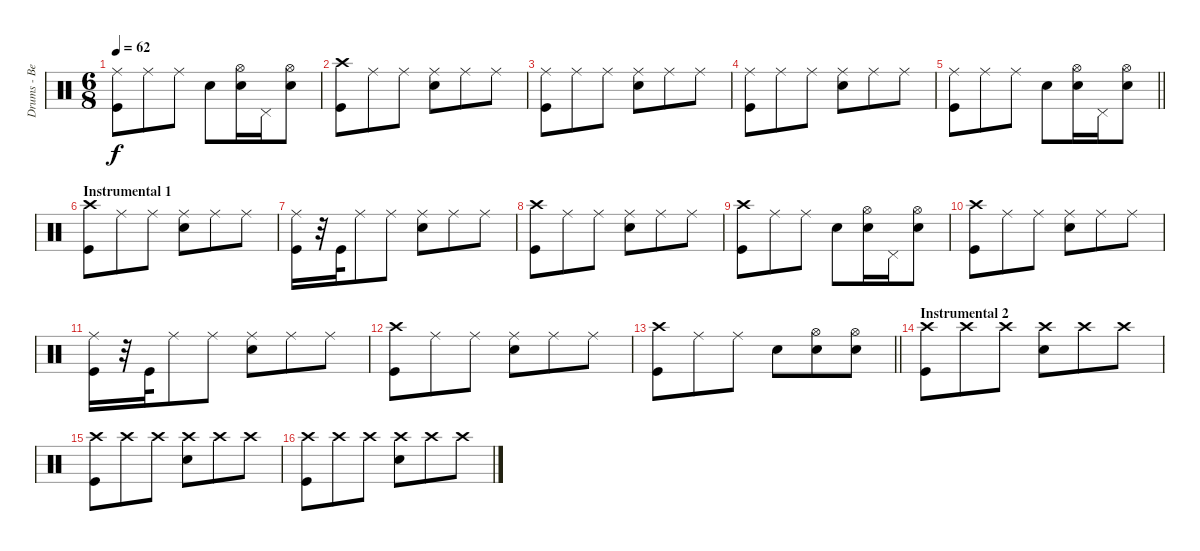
\track ("Drums - Ben Johnston" "Drums - Be") {instrument percussion}
\staff {score}
\articulation defaults
\ts (6 8)
\tempo 62
\clef neutral
\ks c
("Ride (middle)" "Kick (hit)").8{dy f} "Ride (middle)".8 "Ride (middle)".8 "Snare (hit) 2".8 ("Hi-Hat (open)" "Snare (hit) 2").16 "Pedal Hi-Hat (hit)".16 ("Hi-Hat (open)" "Snare (hit) 2").8 |
("Crash high (hit)" "Kick (hit)").8 "Ride (middle)".8 "Ride (middle)".8 ("Ride (middle)" "Snare (hit) 2").8 "Ride (middle)".8 "Ride (middle)".8 |
("Ride (middle)" "Kick (hit)").8 "Ride (middle)".8 "Ride (middle)".8 ("Ride (middle)" "Snare (hit) 2").8 "Ride (middle)".8 "Ride (middle)".8 |
("Ride (middle)" "Kick (hit)").8 "Ride (middle)".8 "Ride (middle)".8 ("Ride (middle)" "Snare (hit) 2").8 "Ride (middle)".8 "Ride (middle)".8 |
\barLineRight lightlight
("Ride (middle)" "Kick (hit)").8 "Ride (middle)".8 "Ride (middle)".8 "Snare (hit) 2".8 ("Hi-Hat (open)" "Snare (hit) 2").16 "Pedal Hi-Hat (hit)".16 ("Hi-Hat (open)" "Snare (hit) 2").8 |
\section ("" "Instrumental 1")
("Crash high (hit)" "Kick (hit)").8 "Ride (middle)".8 "Ride (middle)".8 ("Ride (middle)" "Snare (hit) 2").8 "Ride (middle)".8 "Ride (middle)".8 |
("Ride (middle)" "Kick (hit)").16 r.32 "Kick (hit)".32 "Ride (middle)".8 "Ride (middle)".8 ("Ride (middle)" "Snare (hit) 2").8 "Ride (middle)".8 "Ride (middle)".8 |
("Crash high (hit)" "Kick (hit)").8 "Ride (middle)".8 "Ride (middle)".8 ("Ride (middle)" "Snare (hit) 2").8 "Ride (middle)".8 "Ride (middle)".8 |
("Crash high (hit)" "Kick (hit)").8 "Ride (middle)".8 "Ride (middle)".8 "Snare (hit) 2".8 ("Hi-Hat (open)" "Snare (hit) 2").16 "Pedal Hi-Hat (hit)".16 ("Hi-Hat (open)" "Snare (hit) 2").8 |
("Crash high (hit)" "Kick (hit)").8 "Ride (middle)".8 "Ride (middle)".8 ("Ride (middle)" "Snare (hit) 2").8 "Ride (middle)".8 "Ride (middle)".8 |
("Ride (middle)" "Kick (hit)").16 r.32 "Kick (hit)".32 "Ride (middle)".8 "Ride (middle)".8 ("Ride (middle)" "Snare (hit) 2").8 "Ride (middle)".8 "Ride (middle)".8 |
("Crash high (hit)" "Kick (hit)").8 "Ride (middle)".8 "Ride (middle)".8 ("Ride (middle)" "Snare (hit) 2").8 "Ride (middle)".8 "Ride (middle)".8 |
\barLineRight lightlight
("Crash high (hit)" "Kick (hit)").8 "Ride (middle)".8 "Ride (middle)".8 "Snare (hit) 2".8 ("Hi-Hat (open)" "Snare (hit) 2").8 ("Hi-Hat (open)" "Snare (hit) 2").8 |
\section ("" "Instrumental 2")
("Crash high (hit)" "Kick (hit)").8 "Crash high (hit)".8 "Crash high (hit)".8 ("Crash high (hit)" "Snare (hit) 2").8 "Crash high (hit)".8 "Crash high (hit)".8 |
("Crash high (hit)" "Kick (hit)").8 "Crash high (hit)".8 "Crash high (hit)".8 ("Crash high (hit)" "Snare (hit) 2").8 "Crash high (hit)".8 "Crash high (hit)".8 |
("Crash high (hit)" "Kick (hit)").8 "Crash high (hit)".8 "Crash high (hit)".8 ("Crash high (hit)" "Snare (hit) 2").8 "Crash high (hit)".8 "Crash high (hit)".8
